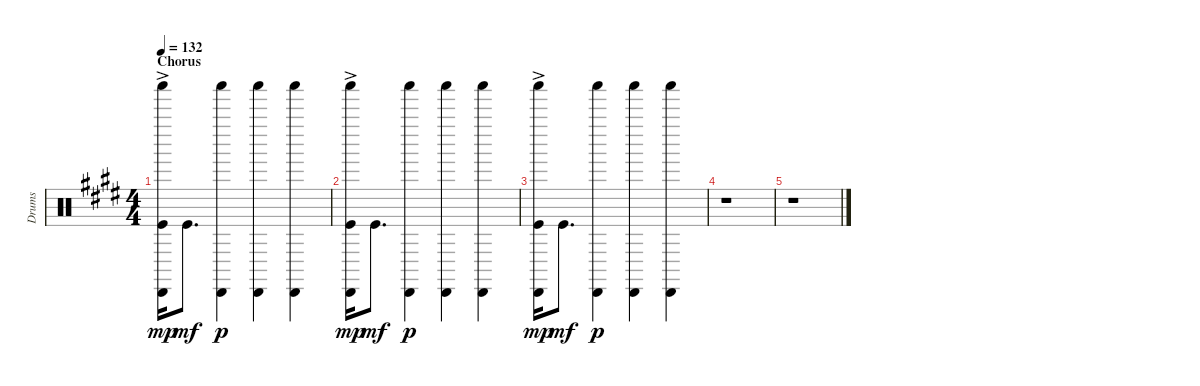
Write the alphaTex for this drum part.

\track ("Drums" "Drums") {instrument percussion}
\staff {score}
\articulation defaults
\ts (4 4)
\section ("" "Chorus")
\tempo 132
\clef neutral
\ks e
("Shaker (hit)" "Cabasa (hit)"{ac} "Kick (hit)").16{dy mp} "Kick (hit)".8{d dy mf} ("Shaker (hit)" "Cabasa (hit)").4{dy p} ("Shaker (hit)" "Cabasa (hit)").4 ("Shaker (hit)" "Cabasa (hit)").4 |
("Shaker (hit)" "Cabasa (hit)"{ac} "Kick (hit)").16{dy mp} "Kick (hit)".8{d dy mf} ("Shaker (hit)" "Cabasa (hit)").4{dy p} ("Shaker (hit)" "Cabasa (hit)").4 ("Shaker (hit)" "Cabasa (hit)").4 |
("Shaker (hit)" "Cabasa (hit)"{ac} "Kick (hit)").16{dy mp} "Kick (hit)".8{d dy mf} ("Shaker (hit)" "Cabasa (hit)").4{dy p} ("Shaker (hit)" "Cabasa (hit)").4 ("Shaker (hit)" "Cabasa (hit)").4 |
r.1 |
r.1
